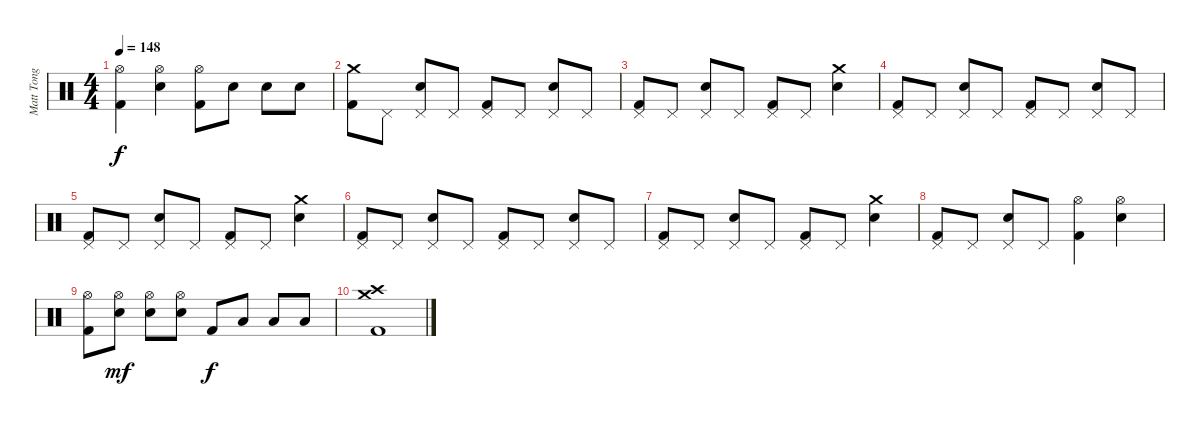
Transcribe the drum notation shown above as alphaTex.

\track ("Matt Tong" "Matt Tong") {instrument percussion}
\staff {score}
\articulation defaults
\ts (4 4)
\tempo 148
\clef neutral
\ks c
("Hi-Hat (open)" "Kick (hit) 2").4{dy f} ("Hi-Hat (open)" "Electric Snare (hit)").4 ("Hi-Hat (open)" "Kick (hit) 2").8 "Electric Snare (hit)".8 "Electric Snare (hit)".8 "Electric Snare (hit)".8 |
("Crash medium (hit)" "Kick (hit) 2").8 "Pedal Hi-Hat (hit)".8 ("Pedal Hi-Hat (hit)" "Electric Snare (hit)").8 "Pedal Hi-Hat (hit)".8 ("Pedal Hi-Hat (hit)" "Kick (hit) 2").8 "Pedal Hi-Hat (hit)".8 ("Pedal Hi-Hat (hit)" "Electric Snare (hit)").8 "Pedal Hi-Hat (hit)".8 |
("Pedal Hi-Hat (hit)" "Kick (hit) 2").8 "Pedal Hi-Hat (hit)".8 ("Pedal Hi-Hat (hit)" "Electric Snare (hit)").8 "Pedal Hi-Hat (hit)".8 ("Pedal Hi-Hat (hit)" "Kick (hit) 2").8 "Pedal Hi-Hat (hit)".8 ("Crash medium (hit)" "Electric Snare (hit)").4 |
("Pedal Hi-Hat (hit)" "Kick (hit) 2").8 "Pedal Hi-Hat (hit)".8 ("Pedal Hi-Hat (hit)" "Electric Snare (hit)").8 "Pedal Hi-Hat (hit)".8 ("Pedal Hi-Hat (hit)" "Kick (hit) 2").8 "Pedal Hi-Hat (hit)".8 ("Pedal Hi-Hat (hit)" "Electric Snare (hit)").8 "Pedal Hi-Hat (hit)".8 |
("Pedal Hi-Hat (hit)" "Kick (hit) 2").8 "Pedal Hi-Hat (hit)".8 ("Pedal Hi-Hat (hit)" "Electric Snare (hit)").8 "Pedal Hi-Hat (hit)".8 ("Pedal Hi-Hat (hit)" "Kick (hit) 2").8 "Pedal Hi-Hat (hit)".8 ("Crash medium (hit)" "Electric Snare (hit)").4 |
("Pedal Hi-Hat (hit)" "Kick (hit) 2").8 "Pedal Hi-Hat (hit)".8 ("Pedal Hi-Hat (hit)" "Electric Snare (hit)").8 "Pedal Hi-Hat (hit)".8 ("Pedal Hi-Hat (hit)" "Kick (hit) 2").8 "Pedal Hi-Hat (hit)".8 ("Pedal Hi-Hat (hit)" "Electric Snare (hit)").8 "Pedal Hi-Hat (hit)".8 |
("Pedal Hi-Hat (hit)" "Kick (hit) 2").8 "Pedal Hi-Hat (hit)".8 ("Pedal Hi-Hat (hit)" "Electric Snare (hit)").8 "Pedal Hi-Hat (hit)".8 ("Pedal Hi-Hat (hit)" "Kick (hit) 2").8 "Pedal Hi-Hat (hit)".8 ("Crash medium (hit)" "Electric Snare (hit)").4 |
("Pedal Hi-Hat (hit)" "Kick (hit) 2").8 "Pedal Hi-Hat (hit)".8 ("Pedal Hi-Hat (hit)" "Electric Snare (hit)").8 "Pedal Hi-Hat (hit)".8 ("Hi-Hat (open)" "Kick (hit) 2").4 ("Hi-Hat (open)" "Electric Snare (hit)").4 |
("Hi-Hat (open)" "Kick (hit) 2").8 ("Hi-Hat (open)" "Electric Snare (hit)").8{dy mf} ("Hi-Hat (open)" "Electric Snare (hit)").8 ("Hi-Hat (open)" "Electric Snare (hit)").8 "Kick (hit) 2".8{dy f} "Low Tom (hit)".8 "Low Tom (hit)".8 "Low Tom (hit)".8 |
("Crash high (hit)" "Crash medium (hit)" "Kick (hit) 2").1
